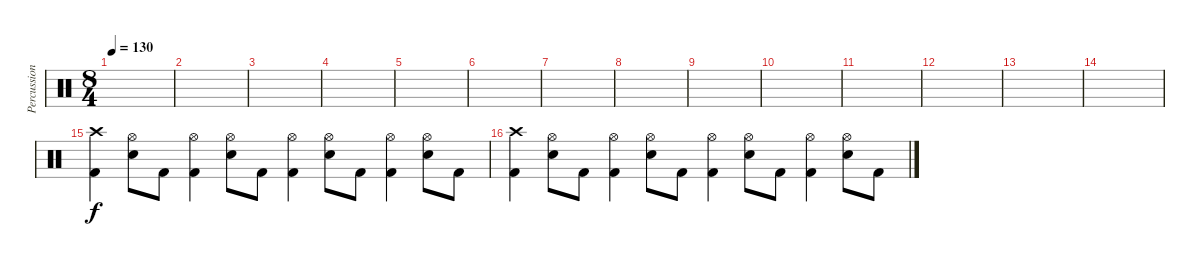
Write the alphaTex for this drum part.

\track ("Percussion" "Percussion") {instrument percussion}
\staff {score}
\articulation defaults
\ts (8 4)
\tempo 130
\clef neutral
\ks c
|
|
|
|
|
|
|
|
|
|
|
|
|
|
("Crash high (hit)" "Kick (hit) 2").4 ("Hi-Hat (open)" "Snare (hit) 2").8 "Kick (hit) 2".8 ("Hi-Hat (open)" "Kick (hit) 2").4 ("Hi-Hat (open)" "Snare (hit) 2").8 "Kick (hit) 2".8 ("Hi-Hat (open)" "Kick (hit) 2").4 ("Hi-Hat (open)" "Snare (hit) 2").8 "Kick (hit) 2".8 ("Hi-Hat (open)" "Kick (hit) 2").4 ("Hi-Hat (open)" "Snare (hit) 2").8 "Kick (hit) 2".8 |
("Crash high (hit)" "Kick (hit) 2").4 ("Hi-Hat (open)" "Snare (hit) 2").8 "Kick (hit) 2".8 ("Hi-Hat (open)" "Kick (hit) 2").4 ("Hi-Hat (open)" "Snare (hit) 2").8 "Kick (hit) 2".8 ("Hi-Hat (open)" "Kick (hit) 2").4 ("Hi-Hat (open)" "Snare (hit) 2").8 "Kick (hit) 2".8 ("Hi-Hat (open)" "Kick (hit) 2").4 ("Hi-Hat (open)" "Snare (hit) 2").8 "Kick (hit) 2".8
